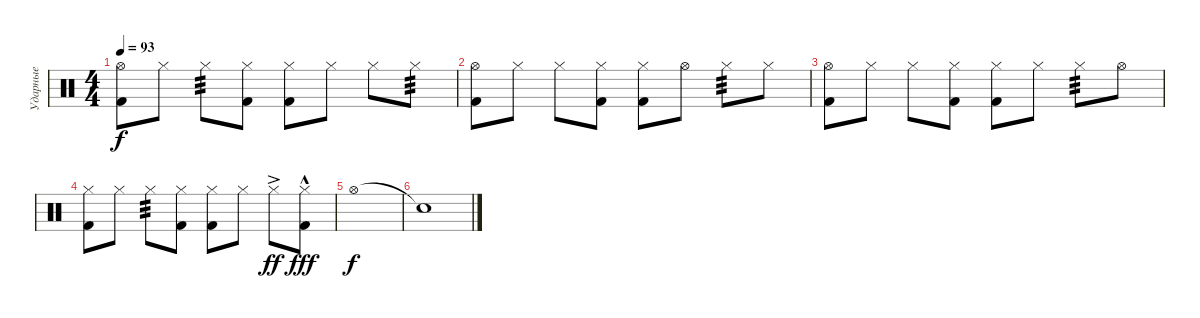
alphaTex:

\track ("Ударные" "Ударные") {instrument percussion}
\staff
\articulation defaults
\ts (4 4)
\tempo 93
\clef neutral
\ks c
("Hi-Hat (open)" "Kick (hit) 2").8{dy f} "Hi-Hat (closed)".8 "Hi-Hat (closed)".8{tp 3} ("Hi-Hat (closed)" "Kick (hit) 2").8 ("Hi-Hat (closed)" "Kick (hit) 2").8 "Hi-Hat (closed)".8 "Hi-Hat (closed)".8 "Hi-Hat (closed)".8{tp 3} |
("Hi-Hat (open)" "Kick (hit) 2").8 "Hi-Hat (closed)".8 "Hi-Hat (closed)".8 ("Hi-Hat (closed)" "Kick (hit) 2").8 ("Hi-Hat (closed)" "Kick (hit) 2").8 "Hi-Hat (open)".8 "Hi-Hat (closed)".8{tp 3} "Hi-Hat (closed)".8 |
("Hi-Hat (open)" "Kick (hit) 2").8 "Hi-Hat (closed)".8 "Hi-Hat (closed)".8 ("Hi-Hat (closed)" "Kick (hit) 2").8 ("Hi-Hat (closed)" "Kick (hit) 2").8 "Hi-Hat (closed)".8 "Hi-Hat (closed)".8{tp 3} "Hi-Hat (open)".8 |
("Hi-Hat (closed)" "Kick (hit) 2").8 "Hi-Hat (closed)".8 "Hi-Hat (closed)".8{tp 3} ("Hi-Hat (closed)" "Kick (hit) 2").8 ("Hi-Hat (closed)" "Kick (hit) 2").8 "Hi-Hat (closed)".8 "Hi-Hat (closed)"{ac}.8{dy ff} ("Hi-Hat (closed)"{hac} "Kick (hit) 2").8{dy fff} |
"Hi-Hat (open)".1{dy f} |
"Snare (hit)"{t}.1
